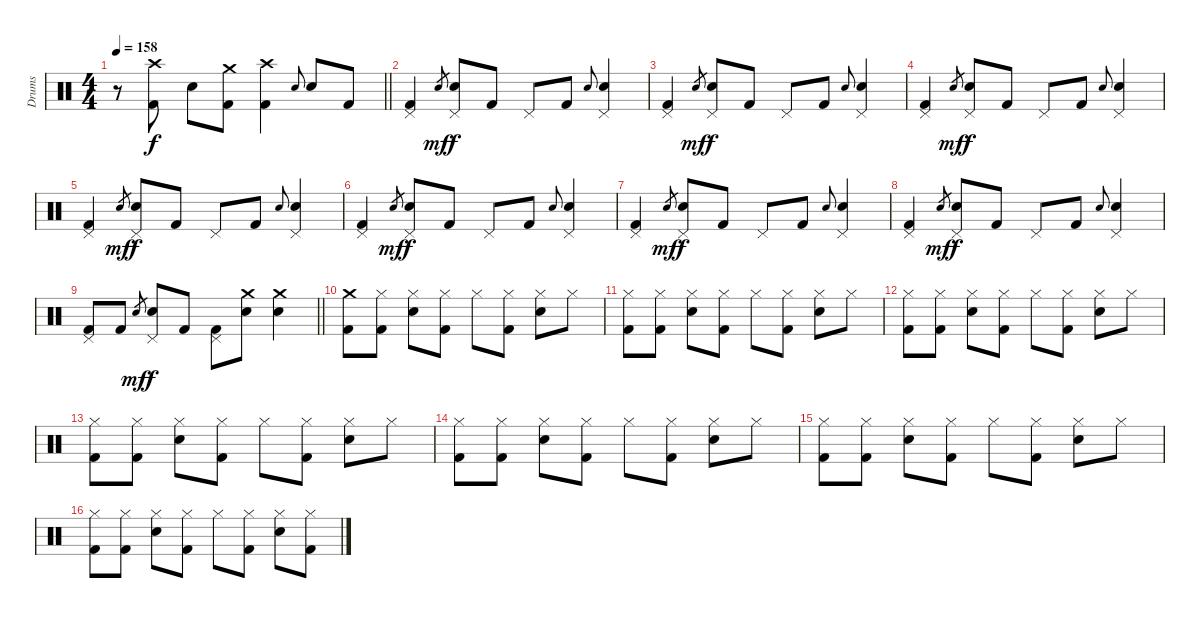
\track ("Drums" "Drums") {instrument percussion}
\staff {score}
\articulation defaults
\ts (4 4)
\tempo 158
\clef neutral
\barLineRight lightlight
\ks c
r.8{dy f} ("Crash high (hit)" "Kick (hit) 2").8 "Electric Snare (hit)".8 ("Crash medium (hit)" "Kick (hit) 2").8 ("Crash high (hit)" "Kick (hit) 2").4 "Electric Snare (hit)".8{gr onbeat} "Electric Snare (hit)".8 "Kick (hit) 2".8 |
("Pedal Hi-Hat (hit)" "Kick (hit) 2").4 "Electric Snare (hit)".8{gr dy mf} ("Pedal Hi-Hat (hit)" "Electric Snare (hit)").8{dy f} "Kick (hit) 2".8 "Pedal Hi-Hat (hit)".8 "Kick (hit) 2".8 "Electric Snare (hit)".8{gr onbeat} ("Pedal Hi-Hat (hit)" "Electric Snare (hit)").4 |
("Pedal Hi-Hat (hit)" "Kick (hit) 2").4 "Electric Snare (hit)".8{gr dy mf} ("Pedal Hi-Hat (hit)" "Electric Snare (hit)").8{dy f} "Kick (hit) 2".8 "Pedal Hi-Hat (hit)".8 "Kick (hit) 2".8 "Electric Snare (hit)".8{gr onbeat} ("Pedal Hi-Hat (hit)" "Electric Snare (hit)").4 |
("Pedal Hi-Hat (hit)" "Kick (hit) 2").4 "Electric Snare (hit)".8{gr dy mf} ("Pedal Hi-Hat (hit)" "Electric Snare (hit)").8{dy f} "Kick (hit) 2".8 "Pedal Hi-Hat (hit)".8 "Kick (hit) 2".8 "Electric Snare (hit)".8{gr onbeat} ("Pedal Hi-Hat (hit)" "Electric Snare (hit)").4 |
("Pedal Hi-Hat (hit)" "Kick (hit) 2").4 "Electric Snare (hit)".8{gr dy mf} ("Pedal Hi-Hat (hit)" "Electric Snare (hit)").8{dy f} "Kick (hit) 2".8 "Pedal Hi-Hat (hit)".8 "Kick (hit) 2".8 "Electric Snare (hit)".8{gr onbeat} ("Pedal Hi-Hat (hit)" "Electric Snare (hit)").4 |
("Pedal Hi-Hat (hit)" "Kick (hit) 2").4 "Electric Snare (hit)".8{gr dy mf} ("Pedal Hi-Hat (hit)" "Electric Snare (hit)").8{dy f} "Kick (hit) 2".8 "Pedal Hi-Hat (hit)".8 "Kick (hit) 2".8 "Electric Snare (hit)".8{gr onbeat} ("Pedal Hi-Hat (hit)" "Electric Snare (hit)").4 |
("Pedal Hi-Hat (hit)" "Kick (hit) 2").4 "Electric Snare (hit)".8{gr dy mf} ("Pedal Hi-Hat (hit)" "Electric Snare (hit)").8{dy f} "Kick (hit) 2".8 "Pedal Hi-Hat (hit)".8 "Kick (hit) 2".8 "Electric Snare (hit)".8{gr onbeat} ("Pedal Hi-Hat (hit)" "Electric Snare (hit)").4 |
("Pedal Hi-Hat (hit)" "Kick (hit) 2").4 "Electric Snare (hit)".8{gr dy mf} ("Pedal Hi-Hat (hit)" "Electric Snare (hit)").8{dy f} "Kick (hit) 2".8 "Pedal Hi-Hat (hit)".8 "Kick (hit) 2".8 "Electric Snare (hit)".8{gr onbeat} ("Pedal Hi-Hat (hit)" "Electric Snare (hit)").4 |
\barLineRight lightlight
("Pedal Hi-Hat (hit)" "Kick (hit) 2").8 "Kick (hit) 2".8 "Electric Snare (hit)".8{gr dy mf} ("Pedal Hi-Hat (hit)" "Electric Snare (hit)").8{dy f} "Kick (hit) 2".8 ("Pedal Hi-Hat (hit)" "Kick (hit) 2").8 ("Crash medium (hit)" "Electric Snare (hit)").8 ("Crash medium (hit)" "Electric Snare (hit)").4 |
("Crash medium (hit)" "Kick (hit) 2").8 ("Hi-Hat (closed)" "Kick (hit) 2").8 ("Hi-Hat (closed)" "Electric Snare (hit)").8 ("Hi-Hat (closed)" "Kick (hit) 2").8 "Hi-Hat (closed)".8 ("Hi-Hat (closed)" "Kick (hit) 2").8 ("Hi-Hat (closed)" "Electric Snare (hit)").8 "Hi-Hat (closed)".8 |
("Hi-Hat (closed)" "Kick (hit) 2").8 ("Hi-Hat (closed)" "Kick (hit) 2").8 ("Hi-Hat (closed)" "Electric Snare (hit)").8 ("Hi-Hat (closed)" "Kick (hit) 2").8 "Hi-Hat (closed)".8 ("Hi-Hat (closed)" "Kick (hit) 2").8 ("Hi-Hat (closed)" "Electric Snare (hit)").8 "Hi-Hat (closed)".8 |
("Hi-Hat (closed)" "Kick (hit) 2").8 ("Hi-Hat (closed)" "Kick (hit) 2").8 ("Hi-Hat (closed)" "Electric Snare (hit)").8 ("Hi-Hat (closed)" "Kick (hit) 2").8 "Hi-Hat (closed)".8 ("Hi-Hat (closed)" "Kick (hit) 2").8 ("Hi-Hat (closed)" "Electric Snare (hit)").8 "Hi-Hat (closed)".8 |
("Hi-Hat (closed)" "Kick (hit) 2").8 ("Hi-Hat (closed)" "Kick (hit) 2").8 ("Hi-Hat (closed)" "Electric Snare (hit)").8 ("Hi-Hat (closed)" "Kick (hit) 2").8 "Hi-Hat (closed)".8 ("Hi-Hat (closed)" "Kick (hit) 2").8 ("Hi-Hat (closed)" "Electric Snare (hit)").8 "Hi-Hat (closed)".8 |
("Hi-Hat (closed)" "Kick (hit) 2").8 ("Hi-Hat (closed)" "Kick (hit) 2").8 ("Hi-Hat (closed)" "Electric Snare (hit)").8 ("Hi-Hat (closed)" "Kick (hit) 2").8 "Hi-Hat (closed)".8 ("Hi-Hat (closed)" "Kick (hit) 2").8 ("Hi-Hat (closed)" "Electric Snare (hit)").8 "Hi-Hat (closed)".8 |
("Hi-Hat (closed)" "Kick (hit) 2").8 ("Hi-Hat (closed)" "Kick (hit) 2").8 ("Hi-Hat (closed)" "Electric Snare (hit)").8 ("Hi-Hat (closed)" "Kick (hit) 2").8 "Hi-Hat (closed)".8 ("Hi-Hat (closed)" "Kick (hit) 2").8 ("Hi-Hat (closed)" "Electric Snare (hit)").8 "Hi-Hat (closed)".8 |
("Hi-Hat (closed)" "Kick (hit) 2").8 ("Hi-Hat (closed)" "Kick (hit) 2").8 ("Hi-Hat (closed)" "Electric Snare (hit)").8 ("Hi-Hat (closed)" "Kick (hit) 2").8 "Hi-Hat (closed)".8 ("Hi-Hat (closed)" "Kick (hit) 2").8 ("Hi-Hat (closed)" "Electric Snare (hit)").8 ("Hi-Hat (closed)" "Kick (hit) 2").8
